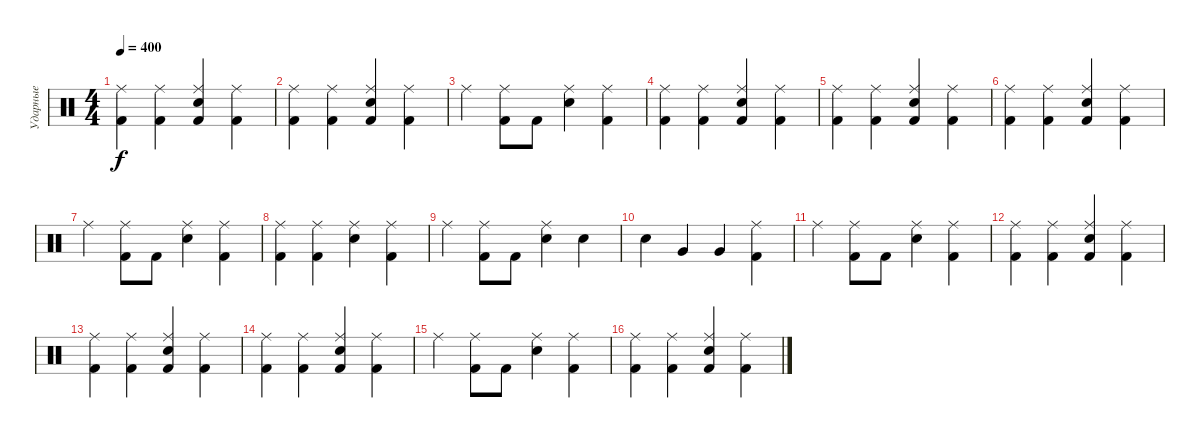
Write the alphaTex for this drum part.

\track ("Ударные" "Ударные") {instrument percussion}
\staff {score}
\articulation defaults
\ts (4 4)
\tempo 400
\clef neutral
\ks c
("Kick (hit) 2" "Ride (middle)").4{dy f} ("Kick (hit) 2" "Ride (middle)").4 ("Kick (hit) 2" "Ride (middle)" "Electric Snare (hit)").4 ("Kick (hit) 2" "Ride (middle)").4 |
("Kick (hit) 2" "Ride (middle)").4 ("Kick (hit) 2" "Ride (middle)").4 ("Kick (hit) 2" "Ride (middle)" "Electric Snare (hit)").4 ("Kick (hit) 2" "Ride (middle)").4 |
"Ride (middle)".4 ("Kick (hit) 2" "Ride (middle)").8 "Kick (hit) 2".8 ("Electric Snare (hit)" "Ride (middle)").4 ("Kick (hit) 2" "Ride (middle)").4 |
("Kick (hit) 2" "Ride (middle)").4 ("Kick (hit) 2" "Ride (middle)").4 ("Kick (hit) 2" "Ride (middle)" "Electric Snare (hit)").4 ("Kick (hit) 2" "Ride (middle)").4 |
("Kick (hit) 2" "Ride (middle)").4 ("Kick (hit) 2" "Ride (middle)").4 ("Kick (hit) 2" "Ride (middle)" "Electric Snare (hit)").4 ("Kick (hit) 2" "Ride (middle)").4 |
("Kick (hit) 2" "Ride (middle)").4 ("Kick (hit) 2" "Ride (middle)").4 ("Kick (hit) 2" "Ride (middle)" "Electric Snare (hit)").4 ("Kick (hit) 2" "Ride (middle)").4 |
"Ride (middle)".4 ("Kick (hit) 2" "Ride (middle)").8 "Kick (hit) 2".8 ("Electric Snare (hit)" "Ride (middle)").4 ("Kick (hit) 2" "Ride (middle)").4 |
("Kick (hit) 2" "Ride (middle)").4 ("Kick (hit) 2" "Ride (middle)").4 ("Electric Snare (hit)" "Ride (middle)").4 ("Kick (hit) 2" "Ride (middle)").4 |
"Ride (middle)".4 ("Kick (hit) 2" "Ride (middle)").8 "Kick (hit) 2".8 ("Electric Snare (hit)" "Ride (middle)").4 "Snare (hit) 2".4 |
"Snare (hit) 2".4 "Very Low Tom (hit)".4 "Very Low Tom (hit)".4 ("Kick (hit) 2" "Ride (middle)").4 |
"Ride (middle)".4 ("Ride (middle)" "Kick (hit) 2").8 "Kick (hit) 2".8 ("Electric Snare (hit)" "Ride (middle)").4 ("Ride (middle)" "Kick (hit) 2").4 |
("Kick (hit) 2" "Ride (middle)").4 ("Kick (hit) 2" "Ride (middle)").4 ("Kick (hit) 2" "Electric Snare (hit)" "Ride (middle)").4 ("Kick (hit) 2" "Ride (middle)").4 |
("Kick (hit) 2" "Ride (middle)").4 ("Kick (hit) 2" "Ride (middle)").4 ("Kick (hit) 2" "Ride (middle)" "Electric Snare (hit)").4 ("Kick (hit) 2" "Ride (middle)").4 |
("Kick (hit) 2" "Ride (middle)").4 ("Kick (hit) 2" "Ride (middle)").4 ("Kick (hit) 2" "Ride (middle)" "Electric Snare (hit)").4 ("Kick (hit) 2" "Ride (middle)").4 |
"Ride (middle)".4 ("Kick (hit) 2" "Ride (middle)").8 "Kick (hit) 2".8 ("Electric Snare (hit)" "Ride (middle)").4 ("Kick (hit) 2" "Ride (middle)").4 |
("Kick (hit) 2" "Ride (middle)").4 ("Kick (hit) 2" "Ride (middle)").4 ("Kick (hit) 2" "Ride (middle)" "Electric Snare (hit)").4 ("Kick (hit) 2" "Ride (middle)").4
